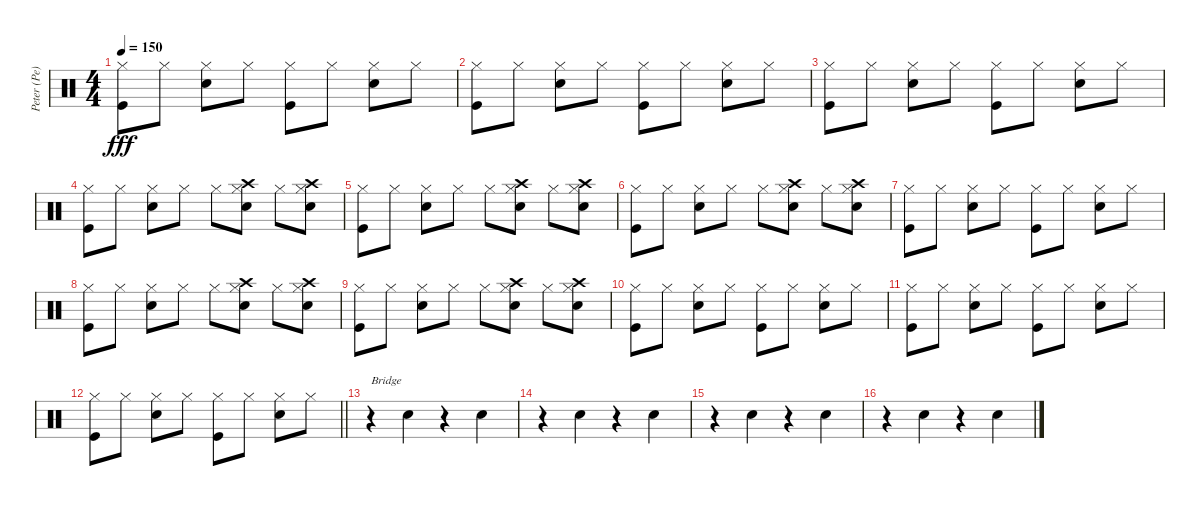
\track ("Peter (Pe) Schorowsky" "Peter (Pe)") {instrument percussion}
\staff {score}
\articulation defaults
\ts (4 4)
\tempo 150
\clef neutral
\ks c
("Kick (hit)" "Hi-Hat (closed)").8{dy fff} "Hi-Hat (closed)".8 ("Electric Snare (hit)" "Hi-Hat (closed)").8 "Hi-Hat (closed)".8 ("Kick (hit)" "Hi-Hat (closed)").8 "Hi-Hat (closed)".8 ("Electric Snare (hit)" "Hi-Hat (closed)").8 "Hi-Hat (closed)".8 |
("Kick (hit)" "Hi-Hat (closed)").8 "Hi-Hat (closed)".8 ("Electric Snare (hit)" "Hi-Hat (closed)").8 "Hi-Hat (closed)".8 ("Kick (hit)" "Hi-Hat (closed)").8 "Hi-Hat (closed)".8 ("Electric Snare (hit)" "Hi-Hat (closed)").8 "Hi-Hat (closed)".8 |
("Kick (hit)" "Hi-Hat (closed)").8 "Hi-Hat (closed)".8 ("Electric Snare (hit)" "Hi-Hat (closed)").8 "Hi-Hat (closed)".8 ("Kick (hit)" "Hi-Hat (closed)").8 "Hi-Hat (closed)".8 ("Electric Snare (hit)" "Hi-Hat (closed)").8 "Hi-Hat (closed)".8 |
("Kick (hit)" "Hi-Hat (closed)").8 "Hi-Hat (closed)".8 ("Electric Snare (hit)" "Hi-Hat (closed)").8 "Hi-Hat (closed)".8 "Hi-Hat (closed)".8 ("Crash high (hit)" "Electric Snare (hit)" "Hi-Hat (closed)").8 "Hi-Hat (closed)".8 ("Crash high (hit)" "Electric Snare (hit)" "Hi-Hat (closed)").8 |
("Kick (hit)" "Hi-Hat (closed)").8 "Hi-Hat (closed)".8 ("Electric Snare (hit)" "Hi-Hat (closed)").8 "Hi-Hat (closed)".8 "Hi-Hat (closed)".8 ("Crash high (hit)" "Electric Snare (hit)" "Hi-Hat (closed)").8 "Hi-Hat (closed)".8 ("Crash high (hit)" "Electric Snare (hit)" "Hi-Hat (closed)").8 |
("Kick (hit)" "Hi-Hat (closed)").8 "Hi-Hat (closed)".8 ("Electric Snare (hit)" "Hi-Hat (closed)").8 "Hi-Hat (closed)".8 "Hi-Hat (closed)".8 ("Crash high (hit)" "Electric Snare (hit)" "Hi-Hat (closed)").8 "Hi-Hat (closed)".8 ("Crash high (hit)" "Electric Snare (hit)" "Hi-Hat (closed)").8 |
("Kick (hit)" "Hi-Hat (closed)").8 "Hi-Hat (closed)".8 ("Electric Snare (hit)" "Hi-Hat (closed)").8 "Hi-Hat (closed)".8 ("Kick (hit)" "Hi-Hat (closed)").8 "Hi-Hat (closed)".8 ("Electric Snare (hit)" "Hi-Hat (closed)").8 "Hi-Hat (closed)".8 |
("Kick (hit)" "Hi-Hat (closed)").8 "Hi-Hat (closed)".8 ("Electric Snare (hit)" "Hi-Hat (closed)").8 "Hi-Hat (closed)".8 "Hi-Hat (closed)".8 ("Crash high (hit)" "Electric Snare (hit)" "Hi-Hat (closed)").8 "Hi-Hat (closed)".8 ("Crash high (hit)" "Electric Snare (hit)" "Hi-Hat (closed)").8 |
("Kick (hit)" "Hi-Hat (closed)").8 "Hi-Hat (closed)".8 ("Electric Snare (hit)" "Hi-Hat (closed)").8 "Hi-Hat (closed)".8 "Hi-Hat (closed)".8 ("Crash high (hit)" "Electric Snare (hit)" "Hi-Hat (closed)").8 "Hi-Hat (closed)".8 ("Crash high (hit)" "Electric Snare (hit)" "Hi-Hat (closed)").8 |
("Kick (hit)" "Hi-Hat (closed)").8 "Hi-Hat (closed)".8 ("Electric Snare (hit)" "Hi-Hat (closed)").8 "Hi-Hat (closed)".8 ("Kick (hit)" "Hi-Hat (closed)").8 "Hi-Hat (closed)".8 ("Electric Snare (hit)" "Hi-Hat (closed)").8 "Hi-Hat (closed)".8 |
("Kick (hit)" "Hi-Hat (closed)").8 "Hi-Hat (closed)".8 ("Electric Snare (hit)" "Hi-Hat (closed)").8 "Hi-Hat (closed)".8 ("Kick (hit)" "Hi-Hat (closed)").8 "Hi-Hat (closed)".8 ("Electric Snare (hit)" "Hi-Hat (closed)").8 "Hi-Hat (closed)".8 |
\barLineRight lightlight
("Kick (hit)" "Hi-Hat (closed)").8 "Hi-Hat (closed)".8 ("Electric Snare (hit)" "Hi-Hat (closed)").8 "Hi-Hat (closed)".8 ("Kick (hit)" "Hi-Hat (closed)").8 "Hi-Hat (closed)".8 ("Electric Snare (hit)" "Hi-Hat (closed)").8 "Hi-Hat (closed)".8 |
r.4{txt "Bridge"} "Electric Snare (hit)".4 r.4 "Electric Snare (hit)".4 |
r.4 "Electric Snare (hit)".4 r.4 "Electric Snare (hit)".4 |
r.4 "Electric Snare (hit)".4 r.4 "Electric Snare (hit)".4 |
r.4 "Electric Snare (hit)".4 r.4 "Electric Snare (hit)".4
